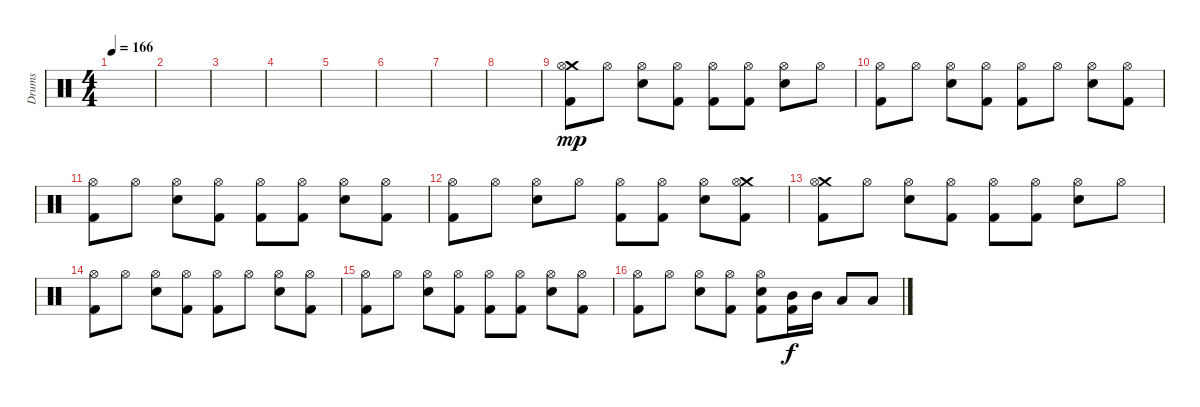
\track ("Drums" "Drums") {instrument percussion}
\staff {score}
\articulation defaults
\ts (4 4)
\tempo 166
\clef neutral
\ks c
|
|
|
|
|
|
|
|
("Crash medium (hit)" "Hi-Hat (open)" "Kick (hit) 2").8{dy mp} "Hi-Hat (open)".8 ("Hi-Hat (open)" "Electric Snare (hit)").8 ("Hi-Hat (open)" "Kick (hit) 2").8 ("Hi-Hat (open)" "Kick (hit) 2").8 ("Hi-Hat (open)" "Kick (hit) 2").8 ("Hi-Hat (open)" "Electric Snare (hit)").8 "Hi-Hat (open)".8 |
("Hi-Hat (open)" "Kick (hit) 2").8 "Hi-Hat (open)".8 ("Hi-Hat (open)" "Electric Snare (hit)").8 ("Hi-Hat (open)" "Kick (hit) 2").8 ("Hi-Hat (open)" "Kick (hit) 2").8 "Hi-Hat (open)".8 ("Hi-Hat (open)" "Electric Snare (hit)").8 ("Hi-Hat (open)" "Kick (hit) 2").8 |
("Hi-Hat (open)" "Kick (hit) 2").8 "Hi-Hat (open)".8 ("Hi-Hat (open)" "Electric Snare (hit)").8 ("Hi-Hat (open)" "Kick (hit) 2").8 ("Hi-Hat (open)" "Kick (hit) 2").8 ("Hi-Hat (open)" "Kick (hit) 2").8 ("Hi-Hat (open)" "Electric Snare (hit)").8 ("Hi-Hat (open)" "Kick (hit) 2").8 |
("Hi-Hat (open)" "Kick (hit) 2").8 "Hi-Hat (open)".8 ("Hi-Hat (open)" "Electric Snare (hit)").8 "Hi-Hat (open)".8 ("Hi-Hat (open)" "Kick (hit) 2").8 ("Hi-Hat (open)" "Kick (hit) 2").8 ("Hi-Hat (open)" "Electric Snare (hit)").8 ("Crash medium (hit)" "Hi-Hat (open)" "Kick (hit) 2").8 |
("Crash medium (hit)" "Hi-Hat (open)" "Kick (hit) 2").8 "Hi-Hat (open)".8 ("Hi-Hat (open)" "Electric Snare (hit)").8 ("Hi-Hat (open)" "Kick (hit) 2").8 ("Hi-Hat (open)" "Kick (hit) 2").8 ("Hi-Hat (open)" "Kick (hit) 2").8 ("Hi-Hat (open)" "Electric Snare (hit)").8 "Hi-Hat (open)".8 |
("Hi-Hat (open)" "Kick (hit) 2").8 "Hi-Hat (open)".8 ("Hi-Hat (open)" "Electric Snare (hit)").8 ("Hi-Hat (open)" "Kick (hit) 2").8 ("Hi-Hat (open)" "Kick (hit) 2").8 "Hi-Hat (open)".8 ("Hi-Hat (open)" "Electric Snare (hit)").8 ("Hi-Hat (open)" "Kick (hit) 2").8 |
("Hi-Hat (open)" "Kick (hit) 2").8 "Hi-Hat (open)".8 ("Hi-Hat (open)" "Electric Snare (hit)").8 ("Hi-Hat (open)" "Kick (hit) 2").8 ("Hi-Hat (open)" "Kick (hit) 2").8 ("Hi-Hat (open)" "Kick (hit) 2").8 ("Hi-Hat (open)" "Electric Snare (hit)").8 ("Hi-Hat (open)" "Kick (hit) 2").8 |
("Hi-Hat (open)" "Kick (hit) 2").8 "Hi-Hat (open)".8 ("Hi-Hat (open)" "Electric Snare (hit)").8 ("Hi-Hat (open)" "Kick (hit) 2").8 ("Hi-Hat (open)" "Electric Snare (hit)" "Kick (hit) 2").8 ("Mid Tom (hit)" "Kick (hit) 2").16{dy f} "Mid Tom (hit)".16 "Low Tom (hit)".8 "Low Tom (hit)".8
